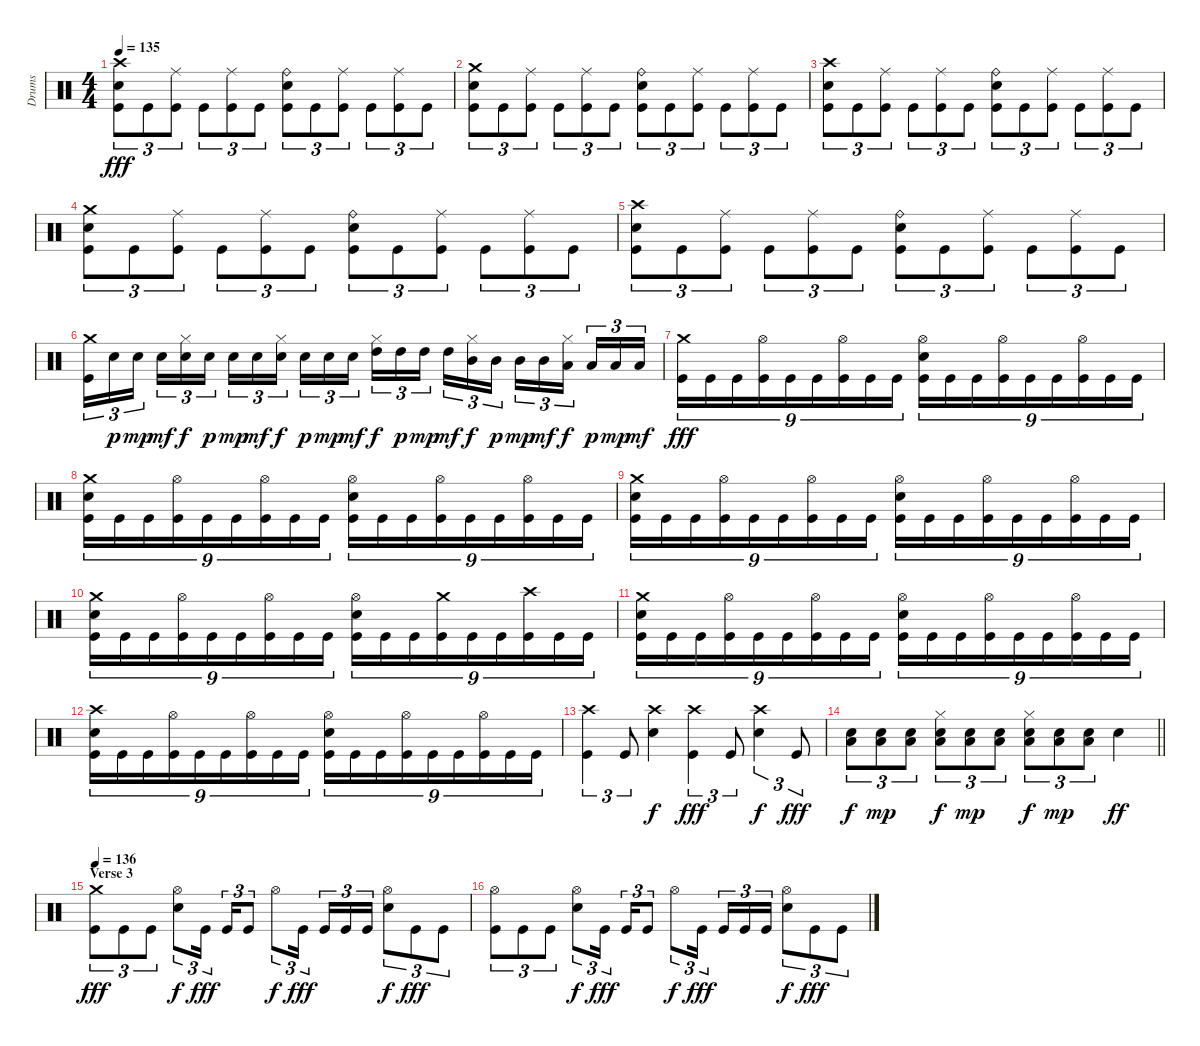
\track ("Drums" "Drums") {instrument percussion}
\staff {score}
\articulation defaults
\ts (4 4)
\tempo 135
\clef neutral
\ks c
("Crash high (hit)" "Electric Snare (hit)" "Kick (hit)").8{tu (3 2) dy fff} "Kick (hit)".8{tu (3 2)} ("Ride (middle)" "Kick (hit)").8{tu (3 2)} "Kick (hit)".8{tu (3 2)} ("Ride (middle)" "Kick (hit)").8{tu (3 2)} "Kick (hit)".8{tu (3 2)} ("Ride (bell)" "Electric Snare (hit)" "Kick (hit)").8{tu (3 2)} "Kick (hit)".8{tu (3 2)} ("Ride (middle)" "Kick (hit)").8{tu (3 2)} "Kick (hit)".8{tu (3 2)} ("Ride (middle)" "Kick (hit)").8{tu (3 2)} "Kick (hit)".8{tu (3 2)} |
("Crash medium (hit)" "Electric Snare (hit)" "Kick (hit)").8{tu (3 2)} "Kick (hit)".8{tu (3 2)} ("Ride (middle)" "Kick (hit)").8{tu (3 2)} "Kick (hit)".8{tu (3 2)} ("Ride (middle)" "Kick (hit)").8{tu (3 2)} "Kick (hit)".8{tu (3 2)} ("Ride (bell)" "Electric Snare (hit)" "Kick (hit)").8{tu (3 2)} "Kick (hit)".8{tu (3 2)} ("Ride (middle)" "Kick (hit)").8{tu (3 2)} "Kick (hit)".8{tu (3 2)} ("Ride (middle)" "Kick (hit)").8{tu (3 2)} "Kick (hit)".8{tu (3 2)} |
("Crash high (hit)" "Electric Snare (hit)" "Kick (hit)").8{tu (3 2)} "Kick (hit)".8{tu (3 2)} ("Ride (middle)" "Kick (hit)").8{tu (3 2)} "Kick (hit)".8{tu (3 2)} ("Ride (middle)" "Kick (hit)").8{tu (3 2)} "Kick (hit)".8{tu (3 2)} ("Ride (bell)" "Electric Snare (hit)" "Kick (hit)").8{tu (3 2)} "Kick (hit)".8{tu (3 2)} ("Ride (middle)" "Kick (hit)").8{tu (3 2)} "Kick (hit)".8{tu (3 2)} ("Ride (middle)" "Kick (hit)").8{tu (3 2)} "Kick (hit)".8{tu (3 2)} |
("Crash medium (hit)" "Electric Snare (hit)" "Kick (hit)").8{tu (3 2)} "Kick (hit)".8{tu (3 2)} ("Ride (middle)" "Kick (hit)").8{tu (3 2)} "Kick (hit)".8{tu (3 2)} ("Ride (middle)" "Kick (hit)").8{tu (3 2)} "Kick (hit)".8{tu (3 2)} ("Ride (bell)" "Electric Snare (hit)" "Kick (hit)").8{tu (3 2)} "Kick (hit)".8{tu (3 2)} ("Ride (middle)" "Kick (hit)").8{tu (3 2)} "Kick (hit)".8{tu (3 2)} ("Ride (middle)" "Kick (hit)").8{tu (3 2)} "Kick (hit)".8{tu (3 2)} |
("Crash high (hit)" "Electric Snare (hit)" "Kick (hit)").8{tu (3 2)} "Kick (hit)".8{tu (3 2)} ("Ride (middle)" "Kick (hit)").8{tu (3 2)} "Kick (hit)".8{tu (3 2)} ("Ride (middle)" "Kick (hit)").8{tu (3 2)} "Kick (hit)".8{tu (3 2)} ("Ride (bell)" "Electric Snare (hit)" "Kick (hit)").8{tu (3 2)} "Kick (hit)".8{tu (3 2)} ("Ride (middle)" "Kick (hit)").8{tu (3 2)} "Kick (hit)".8{tu (3 2)} ("Ride (middle)" "Kick (hit)").8{tu (3 2)} "Kick (hit)".8{tu (3 2)} |
("Crash medium (hit)" "Kick (hit)").16{tu (3 2)} "Electric Snare (hit)".16{tu (3 2) dy p} "Electric Snare (hit)".16{tu (3 2) dy mp beam splitsecondary} "Electric Snare (hit)".16{tu (3 2) dy mf} ("Hi-Hat (closed)" "Electric Snare (hit)").16{tu (3 2) dy f} "Electric Snare (hit)".16{tu (3 2) dy p} "Electric Snare (hit)".16{tu (3 2) dy mp} "Electric Snare (hit)".16{tu (3 2) dy mf} ("Hi-Hat (closed)" "Electric Snare (hit)").16{tu (3 2) dy f beam splitsecondary} "Electric Snare (hit)".16{tu (3 2) dy p} "Electric Snare (hit)".16{tu (3 2) dy mp} "Electric Snare (hit)".16{tu (3 2) dy mf} ("Hi-Hat (closed)" "High Tom (hit)").16{tu (3 2) dy f} "High Tom (hit)".16{tu (3 2) dy p} "High Tom (hit)".16{tu (3 2) dy mp beam splitsecondary} "High Tom (hit)".16{tu (3 2) dy mf} ("Hi-Hat (closed)" "Mid Tom (hit)").16{tu (3 2) dy f} "Mid Tom (hit)".16{tu (3 2) dy p} "Mid Tom (hit)".16{tu (3 2) dy mp} "Mid Tom (hit)".16{tu (3 2) dy mf} ("Hi-Hat (closed)" "Low Tom (hit)").16{tu (3 2) dy f beam splitsecondary} "Low Tom (hit)".16{tu (3 2) dy p} "Low Tom (hit)".16{tu (3 2) dy mp} "Low Tom (hit)".16{tu (3 2) dy mf} |
("Crash medium (hit)" "Kick (hit)").16{tu (9 8) dy fff} "Kick (hit)".16{tu (9 8)} "Kick (hit)".16{tu (9 8)} ("Hi-Hat (open)" "Kick (hit)").16{tu (9 8)} "Kick (hit)".16{tu (9 8)} "Kick (hit)".16{tu (9 8)} ("Hi-Hat (open)" "Kick (hit)").16{tu (9 8)} "Kick (hit)".16{tu (9 8)} "Kick (hit)".16{tu (9 8)} ("Hi-Hat (open)" "Electric Snare (hit)" "Kick (hit)").16{tu (9 8)} "Kick (hit)".16{tu (9 8)} "Kick (hit)".16{tu (9 8)} ("Hi-Hat (open)" "Kick (hit)").16{tu (9 8)} "Kick (hit)".16{tu (9 8)} "Kick (hit)".16{tu (9 8)} ("Hi-Hat (open)" "Kick (hit)").16{tu (9 8)} "Kick (hit)".16{tu (9 8)} "Kick (hit)".16{tu (9 8)} |
("Crash medium (hit)" "Electric Snare (hit)" "Kick (hit)").16{tu (9 8)} "Kick (hit)".16{tu (9 8)} "Kick (hit)".16{tu (9 8)} ("Hi-Hat (open)" "Kick (hit)").16{tu (9 8)} "Kick (hit)".16{tu (9 8)} "Kick (hit)".16{tu (9 8)} ("Hi-Hat (open)" "Kick (hit)").16{tu (9 8)} "Kick (hit)".16{tu (9 8)} "Kick (hit)".16{tu (9 8)} ("Hi-Hat (open)" "Electric Snare (hit)" "Kick (hit)").16{tu (9 8)} "Kick (hit)".16{tu (9 8)} "Kick (hit)".16{tu (9 8)} ("Hi-Hat (open)" "Kick (hit)").16{tu (9 8)} "Kick (hit)".16{tu (9 8)} "Kick (hit)".16{tu (9 8)} ("Hi-Hat (open)" "Kick (hit)").16{tu (9 8)} "Kick (hit)".16{tu (9 8)} "Kick (hit)".16{tu (9 8)} |
("Crash medium (hit)" "Electric Snare (hit)" "Kick (hit)").16{tu (9 8)} "Kick (hit)".16{tu (9 8)} "Kick (hit)".16{tu (9 8)} ("Hi-Hat (open)" "Kick (hit)").16{tu (9 8)} "Kick (hit)".16{tu (9 8)} "Kick (hit)".16{tu (9 8)} ("Hi-Hat (open)" "Kick (hit)").16{tu (9 8)} "Kick (hit)".16{tu (9 8)} "Kick (hit)".16{tu (9 8)} ("Hi-Hat (open)" "Electric Snare (hit)" "Kick (hit)").16{tu (9 8)} "Kick (hit)".16{tu (9 8)} "Kick (hit)".16{tu (9 8)} ("Hi-Hat (open)" "Kick (hit)").16{tu (9 8)} "Kick (hit)".16{tu (9 8)} "Kick (hit)".16{tu (9 8)} ("Hi-Hat (open)" "Kick (hit)").16{tu (9 8)} "Kick (hit)".16{tu (9 8)} "Kick (hit)".16{tu (9 8)} |
("Crash medium (hit)" "Electric Snare (hit)" "Kick (hit)").16{tu (9 8)} "Kick (hit)".16{tu (9 8)} "Kick (hit)".16{tu (9 8)} ("Hi-Hat (open)" "Kick (hit)").16{tu (9 8)} "Kick (hit)".16{tu (9 8)} "Kick (hit)".16{tu (9 8)} ("Hi-Hat (open)" "Kick (hit)").16{tu (9 8)} "Kick (hit)".16{tu (9 8)} "Kick (hit)".16{tu (9 8)} ("Hi-Hat (open)" "Electric Snare (hit)" "Kick (hit)").16{tu (9 8)} "Kick (hit)".16{tu (9 8)} "Kick (hit)".16{tu (9 8)} ("Crash medium (hit)" "Kick (hit)").16{tu (9 8)} "Kick (hit)".16{tu (9 8)} "Kick (hit)".16{tu (9 8)} ("Crash high (hit)" "Kick (hit)").16{tu (9 8)} "Kick (hit)".16{tu (9 8)} "Kick (hit)".16{tu (9 8)} |
("Crash medium (hit)" "Electric Snare (hit)" "Kick (hit)").16{tu (9 8)} "Kick (hit)".16{tu (9 8)} "Kick (hit)".16{tu (9 8)} ("Hi-Hat (open)" "Kick (hit)").16{tu (9 8)} "Kick (hit)".16{tu (9 8)} "Kick (hit)".16{tu (9 8)} ("Hi-Hat (open)" "Kick (hit)").16{tu (9 8)} "Kick (hit)".16{tu (9 8)} "Kick (hit)".16{tu (9 8)} ("Hi-Hat (open)" "Electric Snare (hit)" "Kick (hit)").16{tu (9 8)} "Kick (hit)".16{tu (9 8)} "Kick (hit)".16{tu (9 8)} ("Hi-Hat (open)" "Kick (hit)").16{tu (9 8)} "Kick (hit)".16{tu (9 8)} "Kick (hit)".16{tu (9 8)} ("Hi-Hat (open)" "Kick (hit)").16{tu (9 8)} "Kick (hit)".16{tu (9 8)} "Kick (hit)".16{tu (9 8)} |
("Crash high (hit)" "Electric Snare (hit)" "Kick (hit)").16{tu (9 8)} "Kick (hit)".16{tu (9 8)} "Kick (hit)".16{tu (9 8)} ("Hi-Hat (open)" "Kick (hit)").16{tu (9 8)} "Kick (hit)".16{tu (9 8)} "Kick (hit)".16{tu (9 8)} ("Hi-Hat (open)" "Kick (hit)").16{tu (9 8)} "Kick (hit)".16{tu (9 8)} "Kick (hit)".16{tu (9 8)} ("Hi-Hat (open)" "Electric Snare (hit)" "Kick (hit)").16{tu (9 8)} "Kick (hit)".16{tu (9 8)} "Kick (hit)".16{tu (9 8)} ("Hi-Hat (open)" "Kick (hit)").16{tu (9 8)} "Kick (hit)".16{tu (9 8)} "Kick (hit)".16{tu (9 8)} ("Hi-Hat (open)" "Kick (hit)").16{tu (9 8)} "Kick (hit)".16{tu (9 8)} "Kick (hit)".16{tu (9 8)} |
("Crash high (hit)" "Kick (hit)").4{tu (3 2)} "Kick (hit)".8{tu (3 2)} ("Crash high (hit)" "Electric Snare (hit)").4{dy f} ("Crash high (hit)" "Kick (hit)").4{tu (3 2) dy fff} "Kick (hit)".8{tu (3 2)} ("Crash high (hit)" "Electric Snare (hit)").4{tu (3 2) dy f} "Kick (hit)".8{tu (3 2) dy fff} |
\barLineRight lightlight
("Electric Snare (hit)" "Low Floor Tom (hit)").8{tu (3 2) dy f} ("Electric Snare (hit)" "Low Floor Tom (hit)").8{tu (3 2) dy mp} ("Electric Snare (hit)" "Low Floor Tom (hit)").8{tu (3 2)} ("Hi-Hat (closed)" "Electric Snare (hit)" "Low Floor Tom (hit)").8{tu (3 2) dy f} ("Electric Snare (hit)" "Low Floor Tom (hit)").8{tu (3 2) dy mp} ("Electric Snare (hit)" "Low Floor Tom (hit)").8{tu (3 2)} ("Hi-Hat (closed)" "Electric Snare (hit)" "Low Floor Tom (hit)").8{tu (3 2) dy f} ("Electric Snare (hit)" "Low Floor Tom (hit)").8{tu (3 2) dy mp} ("Electric Snare (hit)" "Low Floor Tom (hit)").8{tu (3 2)} "Electric Snare (hit)".4{dy ff} |
\section ("" "Verse 3")
\tempo 136
("Crash medium (hit)" "Kick (hit)").8{tu (3 2) dy fff} "Kick (hit)".8{tu (3 2)} "Kick (hit)".8{tu (3 2)} ("Hi-Hat (open)" "Electric Snare (hit)").8{tu (3 2) dy f} "Kick (hit)".16{tu (3 2) dy fff beam splitsecondary} "Kick (hit)".16{tu (3 2)} "Kick (hit)".8{tu (3 2)} "Hi-Hat (open)".8{tu (3 2) dy f} "Kick (hit)".16{tu (3 2) dy fff beam splitsecondary} "Kick (hit)".16{tu (3 2)} "Kick (hit)".16{tu (3 2)} "Kick (hit)".16{tu (3 2)} ("Hi-Hat (open)" "Electric Snare (hit)").8{tu (3 2) dy f} "Kick (hit)".8{tu (3 2) dy fff} "Kick (hit)".8{tu (3 2)} |
("Hi-Hat (open)" "Kick (hit)").8{tu (3 2)} "Kick (hit)".8{tu (3 2)} "Kick (hit)".8{tu (3 2)} ("Hi-Hat (open)" "Electric Snare (hit)").8{tu (3 2) dy f} "Kick (hit)".16{tu (3 2) dy fff beam splitsecondary} "Kick (hit)".16{tu (3 2)} "Kick (hit)".8{tu (3 2)} "Hi-Hat (open)".8{tu (3 2) dy f} "Kick (hit)".16{tu (3 2) dy fff beam splitsecondary} "Kick (hit)".16{tu (3 2)} "Kick (hit)".16{tu (3 2)} "Kick (hit)".16{tu (3 2)} ("Hi-Hat (open)" "Electric Snare (hit)").8{tu (3 2) dy f} "Kick (hit)".8{tu (3 2) dy fff} "Kick (hit)".8{tu (3 2)}
